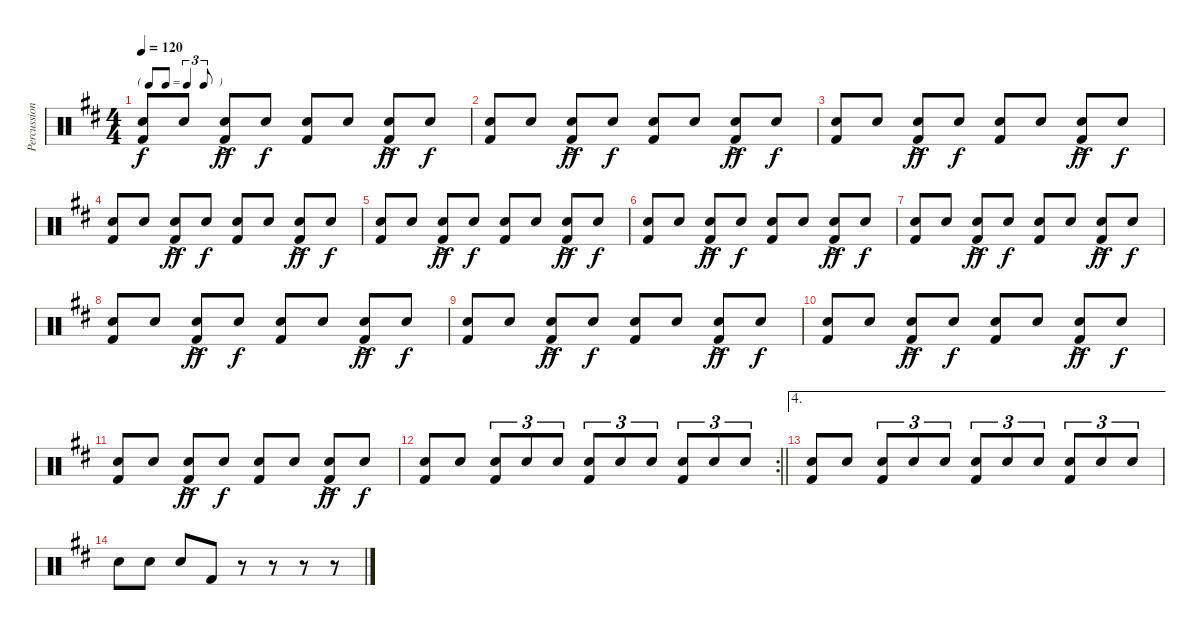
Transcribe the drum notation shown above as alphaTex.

\track ("Percussion" "Percussion") {instrument percussion}
\staff {score}
\articulation defaults
\ts (4 4)
\tf triplet8th
\tempo 120
\clef neutral
\ks d
("Snare (hit) 2" "Kick (hit) 2").8{dy f} "Snare (hit) 2".8 ("Snare (hit) 2"{ac} "Kick (hit) 2").8{dy ff} "Snare (hit) 2".8{dy f} ("Snare (hit) 2" "Kick (hit) 2").8 "Snare (hit) 2".8 ("Snare (hit) 2"{ac} "Kick (hit) 2").8{dy ff} "Snare (hit) 2".8{dy f} |
("Snare (hit) 2" "Kick (hit) 2").8 "Snare (hit) 2".8 ("Snare (hit) 2"{ac} "Kick (hit) 2").8{dy ff} "Snare (hit) 2".8{dy f} ("Snare (hit) 2" "Kick (hit) 2").8 "Snare (hit) 2".8 ("Snare (hit) 2"{ac} "Kick (hit) 2").8{dy ff} "Snare (hit) 2".8{dy f} |
("Snare (hit) 2" "Kick (hit) 2").8 "Snare (hit) 2".8 ("Snare (hit) 2"{ac} "Kick (hit) 2").8{dy ff} "Snare (hit) 2".8{dy f} ("Snare (hit) 2" "Kick (hit) 2").8 "Snare (hit) 2".8 ("Snare (hit) 2"{ac} "Kick (hit) 2").8{dy ff} "Snare (hit) 2".8{dy f} |
("Snare (hit) 2" "Kick (hit) 2").8 "Snare (hit) 2".8 ("Snare (hit) 2"{ac} "Kick (hit) 2").8{dy ff} "Snare (hit) 2".8{dy f} ("Snare (hit) 2" "Kick (hit) 2").8 "Snare (hit) 2".8 ("Snare (hit) 2"{ac} "Kick (hit) 2").8{dy ff} "Snare (hit) 2".8{dy f} |
("Snare (hit) 2" "Kick (hit) 2").8 "Snare (hit) 2".8 ("Snare (hit) 2"{ac} "Kick (hit) 2").8{dy ff} "Snare (hit) 2".8{dy f} ("Snare (hit) 2" "Kick (hit) 2").8 "Snare (hit) 2".8 ("Snare (hit) 2"{ac} "Kick (hit) 2").8{dy ff} "Snare (hit) 2".8{dy f} |
("Snare (hit) 2" "Kick (hit) 2").8 "Snare (hit) 2".8 ("Snare (hit) 2"{ac} "Kick (hit) 2").8{dy ff} "Snare (hit) 2".8{dy f} ("Snare (hit) 2" "Kick (hit) 2").8 "Snare (hit) 2".8 ("Snare (hit) 2"{ac} "Kick (hit) 2").8{dy ff} "Snare (hit) 2".8{dy f} |
("Snare (hit) 2" "Kick (hit) 2").8 "Snare (hit) 2".8 ("Snare (hit) 2"{ac} "Kick (hit) 2").8{dy ff} "Snare (hit) 2".8{dy f} ("Snare (hit) 2" "Kick (hit) 2").8 "Snare (hit) 2".8 ("Snare (hit) 2"{ac} "Kick (hit) 2").8{dy ff} "Snare (hit) 2".8{dy f} |
("Snare (hit) 2" "Kick (hit) 2").8 "Snare (hit) 2".8 ("Snare (hit) 2"{ac} "Kick (hit) 2").8{dy ff} "Snare (hit) 2".8{dy f} ("Snare (hit) 2" "Kick (hit) 2").8 "Snare (hit) 2".8 ("Snare (hit) 2"{ac} "Kick (hit) 2").8{dy ff} "Snare (hit) 2".8{dy f} |
("Snare (hit) 2" "Kick (hit) 2").8 "Snare (hit) 2".8 ("Snare (hit) 2"{ac} "Kick (hit) 2").8{dy ff} "Snare (hit) 2".8{dy f} ("Snare (hit) 2" "Kick (hit) 2").8 "Snare (hit) 2".8 ("Snare (hit) 2"{ac} "Kick (hit) 2").8{dy ff} "Snare (hit) 2".8{dy f} |
("Snare (hit) 2" "Kick (hit) 2").8 "Snare (hit) 2".8 ("Snare (hit) 2"{ac} "Kick (hit) 2").8{dy ff} "Snare (hit) 2".8{dy f} ("Snare (hit) 2" "Kick (hit) 2").8 "Snare (hit) 2".8 ("Snare (hit) 2"{ac} "Kick (hit) 2").8{dy ff} "Snare (hit) 2".8{dy f} |
("Snare (hit) 2" "Kick (hit) 2").8 "Snare (hit) 2".8 ("Snare (hit) 2"{ac} "Kick (hit) 2").8{dy ff} "Snare (hit) 2".8{dy f} ("Snare (hit) 2" "Kick (hit) 2").8 "Snare (hit) 2".8 ("Snare (hit) 2"{ac} "Kick (hit) 2").8{dy ff} "Snare (hit) 2".8{dy f} |
\rc 2
\barLineRight lightlight
("Snare (hit) 2" "Kick (hit) 2").8 "Snare (hit) 2".8 ("Snare (hit) 2" "Kick (hit) 2").8{tu (3 2)} "Snare (hit) 2".8{tu (3 2)} "Snare (hit) 2".8{tu (3 2)} ("Snare (hit) 2" "Kick (hit) 2").8{tu (3 2)} "Snare (hit) 2".8{tu (3 2)} "Snare (hit) 2".8{tu (3 2)} ("Snare (hit) 2" "Kick (hit) 2").8{tu (3 2)} "Snare (hit) 2".8{tu (3 2)} "Snare (hit) 2".8{tu (3 2)} |
\ae 4
("Snare (hit) 2" "Kick (hit) 2").8 "Snare (hit) 2".8 ("Snare (hit) 2" "Kick (hit) 2").8{tu (3 2)} "Snare (hit) 2".8{tu (3 2)} "Snare (hit) 2".8{tu (3 2)} ("Snare (hit) 2" "Kick (hit) 2").8{tu (3 2)} "Snare (hit) 2".8{tu (3 2)} "Snare (hit) 2".8{tu (3 2)} ("Snare (hit) 2" "Kick (hit) 2").8{tu (3 2)} "Snare (hit) 2".8{tu (3 2)} "Snare (hit) 2".8{tu (3 2)} |
"Snare (hit) 2".8 "Snare (hit) 2".8 "Snare (hit) 2".8 "Kick (hit) 2".8 r.8 r.8 r.8 r.8
